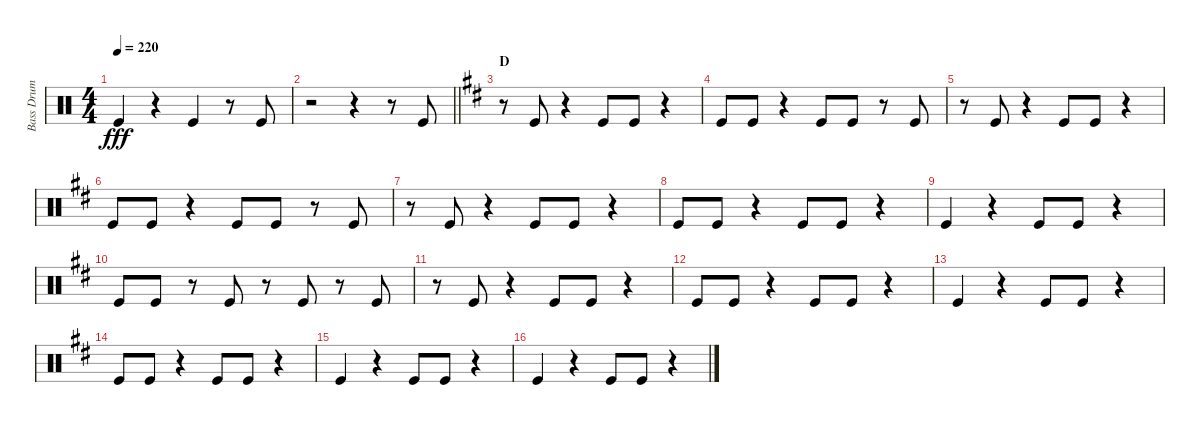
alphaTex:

\track ("Bass Drum" "Bass Drum") {instrument percussion}
\staff {score}
\articulation defaults
\ts (4 4)
\tempo 220
\clef neutral
\ks c "Kick (hit)".4{dy fff}
r.4 "Kick (hit)".4 r.8 "Kick (hit)".8 |
\barLineRight lightlight
r.2 r.4 r.8 "Kick (hit)".8 |
\section ("" "D")
\ks d
r.8 "Kick (hit)".8 r.4 "Kick (hit)".8 "Kick (hit)".8 r.4 |
"Kick (hit)".8 "Kick (hit)".8 r.4 "Kick (hit)".8 "Kick (hit)".8 r.8 "Kick (hit)".8 |
r.8 "Kick (hit)".8 r.4 "Kick (hit)".8 "Kick (hit)".8 r.4 |
"Kick (hit)".8 "Kick (hit)".8 r.4 "Kick (hit)".8 "Kick (hit)".8 r.8 "Kick (hit)".8 |
r.8 "Kick (hit)".8 r.4 "Kick (hit)".8 "Kick (hit)".8 r.4 |
"Kick (hit)".8 "Kick (hit)".8 r.4 "Kick (hit)".8 "Kick (hit)".8 r.4 |
"Kick (hit)".4 r.4 "Kick (hit)".8 "Kick (hit)".8 r.4 |
"Kick (hit)".8 "Kick (hit)".8 r.8 "Kick (hit)".8 r.8 "Kick (hit)".8 r.8 "Kick (hit)".8 |
r.8 "Kick (hit)".8 r.4 "Kick (hit)".8 "Kick (hit)".8 r.4 |
"Kick (hit)".8 "Kick (hit)".8 r.4 "Kick (hit)".8 "Kick (hit)".8 r.4 |
"Kick (hit)".4 r.4 "Kick (hit)".8 "Kick (hit)".8 r.4 |
"Kick (hit)".8 "Kick (hit)".8 r.4 "Kick (hit)".8 "Kick (hit)".8 r.4 |
"Kick (hit)".4 r.4 "Kick (hit)".8 "Kick (hit)".8 r.4 |
"Kick (hit)".4 r.4 "Kick (hit)".8 "Kick (hit)".8 r.4
